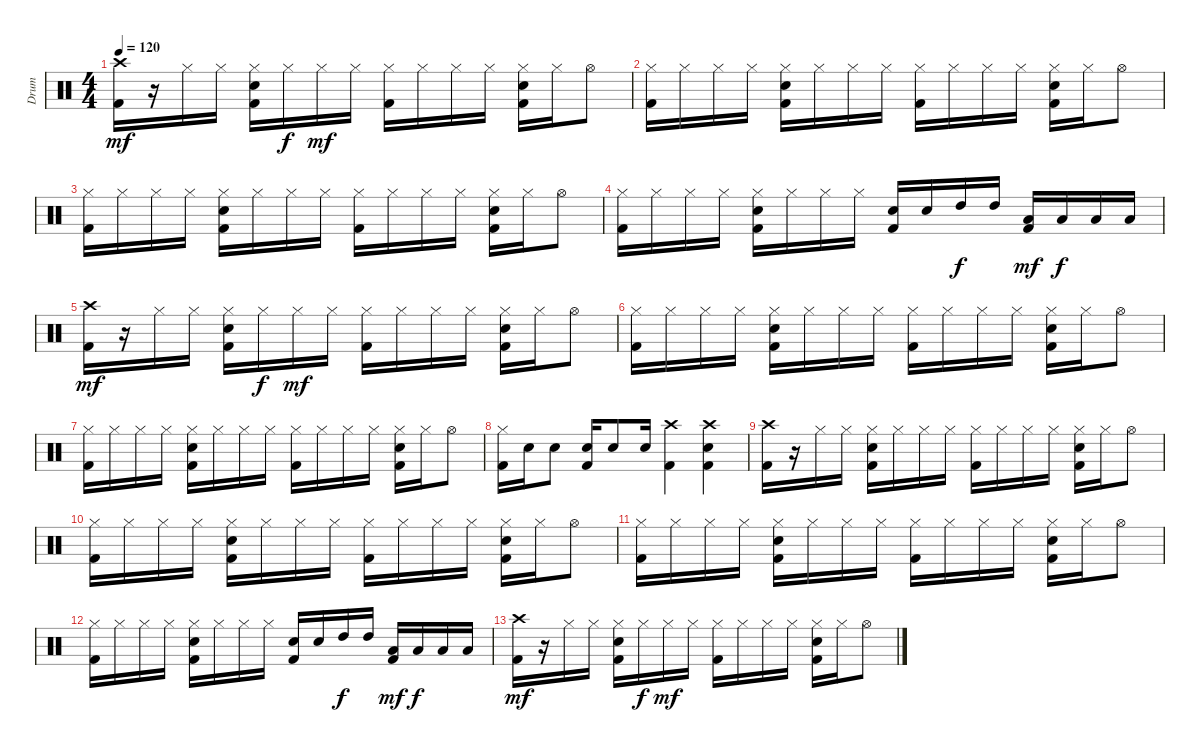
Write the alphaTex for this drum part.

\track ("Drum" "Drum") {instrument percussion}
\staff {score}
\articulation defaults
\ts (4 4)
\tempo 120
\clef neutral
\ks c
("Crash high (hit)" "Kick (hit) 2").16{dy mf} r.16 "Hi-Hat (closed)".16 "Hi-Hat (closed)".16 ("Hi-Hat (closed)" "Snare (hit) 2" "Kick (hit) 2").16 "Hi-Hat (closed)".16{dy f} "Hi-Hat (closed)".16{dy mf} "Hi-Hat (closed)".16 ("Hi-Hat (closed)" "Kick (hit) 2").16 "Hi-Hat (closed)".16 "Hi-Hat (closed)".16 "Hi-Hat (closed)".16 ("Hi-Hat (closed)" "Snare (hit) 2" "Kick (hit) 2").16 "Hi-Hat (closed)".16 "Hi-Hat (open)".8 |
("Hi-Hat (closed)" "Kick (hit) 2").16 "Hi-Hat (closed)".16 "Hi-Hat (closed)".16 "Hi-Hat (closed)".16 ("Hi-Hat (closed)" "Snare (hit) 2" "Kick (hit) 2").16 "Hi-Hat (closed)".16 "Hi-Hat (closed)".16 "Hi-Hat (closed)".16 ("Hi-Hat (closed)" "Kick (hit) 2").16 "Hi-Hat (closed)".16 "Hi-Hat (closed)".16 "Hi-Hat (closed)".16 ("Hi-Hat (closed)" "Snare (hit) 2" "Kick (hit) 2").16 "Hi-Hat (closed)".16 "Hi-Hat (open)".8 |
("Hi-Hat (closed)" "Kick (hit) 2").16 "Hi-Hat (closed)".16 "Hi-Hat (closed)".16 "Hi-Hat (closed)".16 ("Hi-Hat (closed)" "Snare (hit) 2" "Kick (hit) 2").16 "Hi-Hat (closed)".16 "Hi-Hat (closed)".16 "Hi-Hat (closed)".16 ("Hi-Hat (closed)" "Kick (hit) 2").16 "Hi-Hat (closed)".16 "Hi-Hat (closed)".16 "Hi-Hat (closed)".16 ("Hi-Hat (closed)" "Snare (hit) 2" "Kick (hit) 2").16 "Hi-Hat (closed)".16 "Hi-Hat (open)".8 |
("Hi-Hat (closed)" "Kick (hit) 2").16 "Hi-Hat (closed)".16 "Hi-Hat (closed)".16 "Hi-Hat (closed)".16 ("Hi-Hat (closed)" "Snare (hit) 2" "Kick (hit) 2").16 "Hi-Hat (closed)".16 "Hi-Hat (closed)".16 "Hi-Hat (closed)".16 ("Snare (hit) 2" "Kick (hit) 2").16 "Snare (hit) 2".16 "High Tom (hit)".16{dy f} "High Tom (hit)".16 ("Low Tom (hit)" "Kick (hit) 2").16{dy mf} "Low Tom (hit)".16{dy f} "Low Floor Tom (hit)".16 "Low Floor Tom (hit)".16 |
("Crash high (hit)" "Kick (hit) 2").16{dy mf} r.16 "Hi-Hat (closed)".16 "Hi-Hat (closed)".16 ("Hi-Hat (closed)" "Snare (hit) 2" "Kick (hit) 2").16 "Hi-Hat (closed)".16{dy f} "Hi-Hat (closed)".16{dy mf} "Hi-Hat (closed)".16 ("Hi-Hat (closed)" "Kick (hit) 2").16 "Hi-Hat (closed)".16 "Hi-Hat (closed)".16 "Hi-Hat (closed)".16 ("Hi-Hat (closed)" "Snare (hit) 2" "Kick (hit) 2").16 "Hi-Hat (closed)".16 "Hi-Hat (open)".8 |
("Hi-Hat (closed)" "Kick (hit) 2").16 "Hi-Hat (closed)".16 "Hi-Hat (closed)".16 "Hi-Hat (closed)".16 ("Hi-Hat (closed)" "Snare (hit) 2" "Kick (hit) 2").16 "Hi-Hat (closed)".16 "Hi-Hat (closed)".16 "Hi-Hat (closed)".16 ("Hi-Hat (closed)" "Kick (hit) 2").16 "Hi-Hat (closed)".16 "Hi-Hat (closed)".16 "Hi-Hat (closed)".16 ("Hi-Hat (closed)" "Snare (hit) 2" "Kick (hit) 2").16 "Hi-Hat (closed)".16 "Hi-Hat (open)".8 |
("Hi-Hat (closed)" "Kick (hit) 2").16 "Hi-Hat (closed)".16 "Hi-Hat (closed)".16 "Hi-Hat (closed)".16 ("Hi-Hat (closed)" "Snare (hit) 2" "Kick (hit) 2").16 "Hi-Hat (closed)".16 "Hi-Hat (closed)".16 "Hi-Hat (closed)".16 ("Hi-Hat (closed)" "Kick (hit) 2").16 "Hi-Hat (closed)".16 "Hi-Hat (closed)".16 "Hi-Hat (closed)".16 ("Hi-Hat (closed)" "Snare (hit) 2" "Kick (hit) 2").16 "Hi-Hat (closed)".16 "Hi-Hat (open)".8 |
("Hi-Hat (closed)" "Kick (hit) 2").16 "Snare (hit) 2".16 "Snare (hit) 2".8 ("Snare (hit) 2" "Kick (hit) 2").16 "Snare (hit) 2".8 "Snare (hit) 2".16 ("Crash high (hit)" "Kick (hit) 2").4 ("Crash high (hit)" "Snare (hit) 2" "Kick (hit) 2").4 |
("Crash high (hit)" "Kick (hit) 2").16 r.16 "Hi-Hat (closed)".16 "Hi-Hat (closed)".16 ("Hi-Hat (closed)" "Snare (hit) 2" "Kick (hit) 2").16 "Hi-Hat (closed)".16 "Hi-Hat (closed)".16 "Hi-Hat (closed)".16 ("Hi-Hat (closed)" "Kick (hit) 2").16 "Hi-Hat (closed)".16 "Hi-Hat (closed)".16 "Hi-Hat (closed)".16 ("Hi-Hat (closed)" "Snare (hit) 2" "Kick (hit) 2").16 "Hi-Hat (closed)".16 "Hi-Hat (open)".8 |
("Hi-Hat (closed)" "Kick (hit) 2").16 "Hi-Hat (closed)".16 "Hi-Hat (closed)".16 "Hi-Hat (closed)".16 ("Hi-Hat (closed)" "Snare (hit) 2" "Kick (hit) 2").16 "Hi-Hat (closed)".16 "Hi-Hat (closed)".16 "Hi-Hat (closed)".16 ("Hi-Hat (closed)" "Kick (hit) 2").16 "Hi-Hat (closed)".16 "Hi-Hat (closed)".16 "Hi-Hat (closed)".16 ("Hi-Hat (closed)" "Snare (hit) 2" "Kick (hit) 2").16 "Hi-Hat (closed)".16 "Hi-Hat (open)".8 |
("Hi-Hat (closed)" "Kick (hit) 2").16 "Hi-Hat (closed)".16 "Hi-Hat (closed)".16 "Hi-Hat (closed)".16 ("Hi-Hat (closed)" "Snare (hit) 2" "Kick (hit) 2").16 "Hi-Hat (closed)".16 "Hi-Hat (closed)".16 "Hi-Hat (closed)".16 ("Hi-Hat (closed)" "Kick (hit) 2").16 "Hi-Hat (closed)".16 "Hi-Hat (closed)".16 "Hi-Hat (closed)".16 ("Hi-Hat (closed)" "Snare (hit) 2" "Kick (hit) 2").16 "Hi-Hat (closed)".16 "Hi-Hat (open)".8 |
("Hi-Hat (closed)" "Kick (hit) 2").16 "Hi-Hat (closed)".16 "Hi-Hat (closed)".16 "Hi-Hat (closed)".16 ("Hi-Hat (closed)" "Snare (hit) 2" "Kick (hit) 2").16 "Hi-Hat (closed)".16 "Hi-Hat (closed)".16 "Hi-Hat (closed)".16 ("Snare (hit) 2" "Kick (hit) 2").16 "Snare (hit) 2".16 "High Tom (hit)".16{dy f} "High Tom (hit)".16 ("Low Tom (hit)" "Kick (hit) 2").16{dy mf} "Low Tom (hit)".16{dy f} "Low Floor Tom (hit)".16 "Low Floor Tom (hit)".16 |
("Crash high (hit)" "Kick (hit) 2").16{dy mf} r.16 "Hi-Hat (closed)".16 "Hi-Hat (closed)".16 ("Hi-Hat (closed)" "Snare (hit) 2" "Kick (hit) 2").16 "Hi-Hat (closed)".16{dy f} "Hi-Hat (closed)".16{dy mf} "Hi-Hat (closed)".16 ("Hi-Hat (closed)" "Kick (hit) 2").16 "Hi-Hat (closed)".16 "Hi-Hat (closed)".16 "Hi-Hat (closed)".16 ("Hi-Hat (closed)" "Snare (hit) 2" "Kick (hit) 2").16 "Hi-Hat (closed)".16 "Hi-Hat (open)".8
